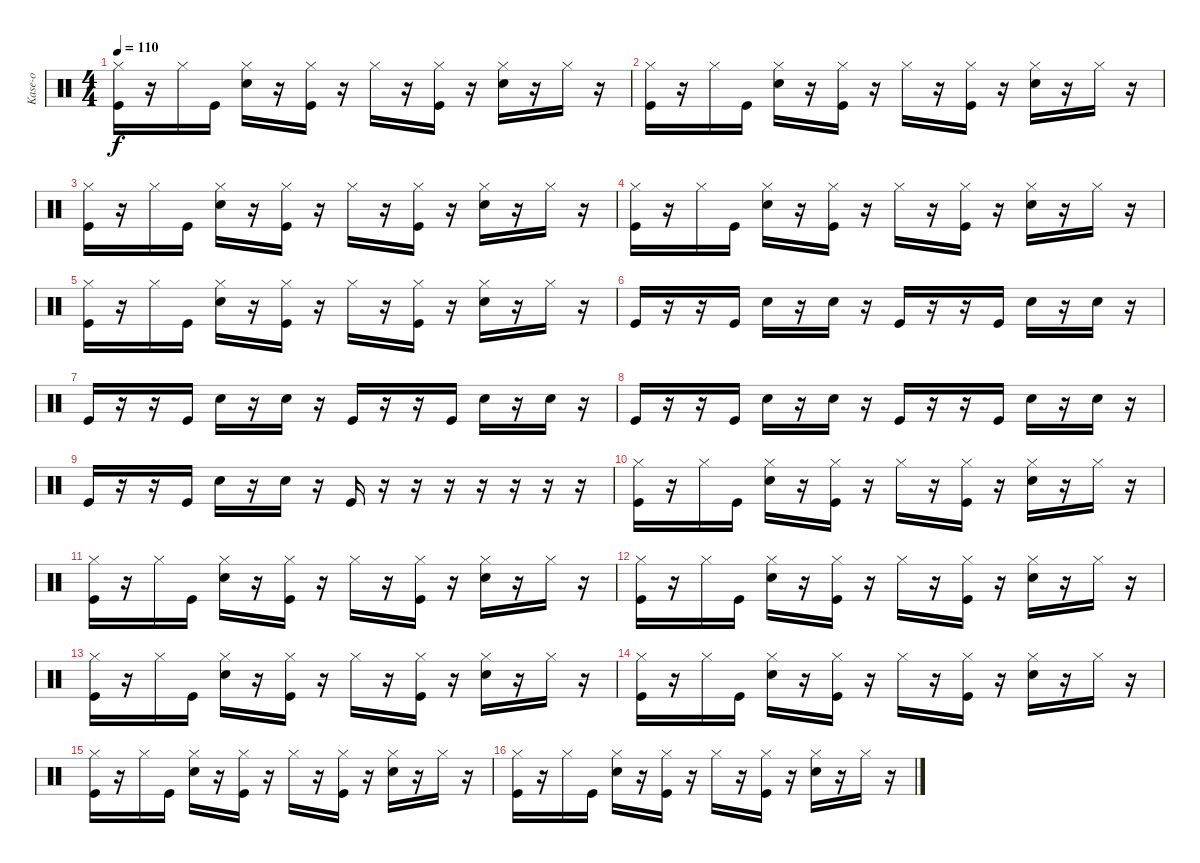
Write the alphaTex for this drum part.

\track ("Kase-o" "Kase-o") {instrument percussion}
\staff {score}
\articulation defaults
\ts (4 4)
\tempo 110
\clef neutral
\ks c
("Hi-Hat (closed)" "Kick (hit)").16{dy f} r.16 "Hi-Hat (closed)".16 "Kick (hit)".16 ("Hi-Hat (closed)" "Electric Snare (hit)").16 r.16 ("Hi-Hat (closed)" "Kick (hit)").16 r.16 "Hi-Hat (closed)".16 r.16 ("Hi-Hat (closed)" "Kick (hit)").16 r.16 ("Hi-Hat (closed)" "Electric Snare (hit)").16 r.16 "Hi-Hat (closed)".16 r.16 |
("Hi-Hat (closed)" "Kick (hit)").16 r.16 "Hi-Hat (closed)".16 "Kick (hit)".16 ("Hi-Hat (closed)" "Electric Snare (hit)").16 r.16 ("Hi-Hat (closed)" "Kick (hit)").16 r.16 "Hi-Hat (closed)".16 r.16 ("Hi-Hat (closed)" "Kick (hit)").16 r.16 ("Hi-Hat (closed)" "Electric Snare (hit)").16 r.16 "Hi-Hat (closed)".16 r.16 |
("Hi-Hat (closed)" "Kick (hit)").16 r.16 "Hi-Hat (closed)".16 "Kick (hit)".16 ("Hi-Hat (closed)" "Electric Snare (hit)").16 r.16 ("Hi-Hat (closed)" "Kick (hit)").16 r.16 "Hi-Hat (closed)".16 r.16 ("Hi-Hat (closed)" "Kick (hit)").16 r.16 ("Hi-Hat (closed)" "Electric Snare (hit)").16 r.16 "Hi-Hat (closed)".16 r.16 |
("Hi-Hat (closed)" "Kick (hit)").16 r.16 "Hi-Hat (closed)".16 "Kick (hit)".16 ("Hi-Hat (closed)" "Electric Snare (hit)").16 r.16 ("Hi-Hat (closed)" "Kick (hit)").16 r.16 "Hi-Hat (closed)".16 r.16 ("Hi-Hat (closed)" "Kick (hit)").16 r.16 ("Hi-Hat (closed)" "Electric Snare (hit)").16 r.16 "Hi-Hat (closed)".16 r.16 |
("Hi-Hat (closed)" "Kick (hit)").16 r.16 "Hi-Hat (closed)".16 "Kick (hit)".16 ("Hi-Hat (closed)" "Electric Snare (hit)").16 r.16 ("Hi-Hat (closed)" "Kick (hit)").16 r.16 "Hi-Hat (closed)".16 r.16 ("Hi-Hat (closed)" "Kick (hit)").16 r.16 ("Hi-Hat (closed)" "Electric Snare (hit)").16 r.16 "Hi-Hat (closed)".16 r.16 |
"Kick (hit)".16 r.16 r.16 "Kick (hit)".16 "Electric Snare (hit)".16 r.16 "Electric Snare (hit)".16 r.16 "Kick (hit)".16 r.16 r.16 "Kick (hit)".16 "Electric Snare (hit)".16 r.16 "Electric Snare (hit)".16 r.16 |
"Kick (hit)".16 r.16 r.16 "Kick (hit)".16 "Electric Snare (hit)".16 r.16 "Electric Snare (hit)".16 r.16 "Kick (hit)".16 r.16 r.16 "Kick (hit)".16 "Electric Snare (hit)".16 r.16 "Electric Snare (hit)".16 r.16 |
"Kick (hit)".16 r.16 r.16 "Kick (hit)".16 "Electric Snare (hit)".16 r.16 "Electric Snare (hit)".16 r.16 "Kick (hit)".16 r.16 r.16 "Kick (hit)".16 "Electric Snare (hit)".16 r.16 "Electric Snare (hit)".16 r.16 |
"Kick (hit)".16 r.16 r.16 "Kick (hit)".16 "Electric Snare (hit)".16 r.16 "Electric Snare (hit)".16 r.16 "Kick (hit)".16 r.16 r.16 r.16 r.16 r.16 r.16 r.16 |
("Hi-Hat (closed)" "Kick (hit)").16 r.16 "Hi-Hat (closed)".16 "Kick (hit)".16 ("Hi-Hat (closed)" "Electric Snare (hit)").16 r.16 ("Hi-Hat (closed)" "Kick (hit)").16 r.16 "Hi-Hat (closed)".16 r.16 ("Hi-Hat (closed)" "Kick (hit)").16 r.16 ("Hi-Hat (closed)" "Electric Snare (hit)").16 r.16 "Hi-Hat (closed)".16 r.16 |
("Hi-Hat (closed)" "Kick (hit)").16 r.16 "Hi-Hat (closed)".16 "Kick (hit)".16 ("Hi-Hat (closed)" "Electric Snare (hit)").16 r.16 ("Hi-Hat (closed)" "Kick (hit)").16 r.16 "Hi-Hat (closed)".16 r.16 ("Hi-Hat (closed)" "Kick (hit)").16 r.16 ("Hi-Hat (closed)" "Electric Snare (hit)").16 r.16 "Hi-Hat (closed)".16 r.16 |
("Hi-Hat (closed)" "Kick (hit)").16 r.16 "Hi-Hat (closed)".16 "Kick (hit)".16 ("Hi-Hat (closed)" "Electric Snare (hit)").16 r.16 ("Hi-Hat (closed)" "Kick (hit)").16 r.16 "Hi-Hat (closed)".16 r.16 ("Hi-Hat (closed)" "Kick (hit)").16 r.16 ("Hi-Hat (closed)" "Electric Snare (hit)").16 r.16 "Hi-Hat (closed)".16 r.16 |
("Hi-Hat (closed)" "Kick (hit)").16 r.16 "Hi-Hat (closed)".16 "Kick (hit)".16 ("Hi-Hat (closed)" "Electric Snare (hit)").16 r.16 ("Hi-Hat (closed)" "Kick (hit)").16 r.16 "Hi-Hat (closed)".16 r.16 ("Hi-Hat (closed)" "Kick (hit)").16 r.16 ("Hi-Hat (closed)" "Electric Snare (hit)").16 r.16 "Hi-Hat (closed)".16 r.16 |
("Hi-Hat (closed)" "Kick (hit)").16 r.16 "Hi-Hat (closed)".16 "Kick (hit)".16 ("Hi-Hat (closed)" "Electric Snare (hit)").16 r.16 ("Hi-Hat (closed)" "Kick (hit)").16 r.16 "Hi-Hat (closed)".16 r.16 ("Hi-Hat (closed)" "Kick (hit)").16 r.16 ("Hi-Hat (closed)" "Electric Snare (hit)").16 r.16 "Hi-Hat (closed)".16 r.16 |
("Hi-Hat (closed)" "Kick (hit)").16 r.16 "Hi-Hat (closed)".16 "Kick (hit)".16 ("Hi-Hat (closed)" "Electric Snare (hit)").16 r.16 ("Hi-Hat (closed)" "Kick (hit)").16 r.16 "Hi-Hat (closed)".16 r.16 ("Hi-Hat (closed)" "Kick (hit)").16 r.16 ("Hi-Hat (closed)" "Electric Snare (hit)").16 r.16 "Hi-Hat (closed)".16 r.16 |
("Hi-Hat (closed)" "Kick (hit)").16 r.16 "Hi-Hat (closed)".16 "Kick (hit)".16 ("Hi-Hat (closed)" "Electric Snare (hit)").16 r.16 ("Hi-Hat (closed)" "Kick (hit)").16 r.16 "Hi-Hat (closed)".16 r.16 ("Hi-Hat (closed)" "Kick (hit)").16 r.16 ("Hi-Hat (closed)" "Electric Snare (hit)").16 r.16 "Hi-Hat (closed)".16 r.16
